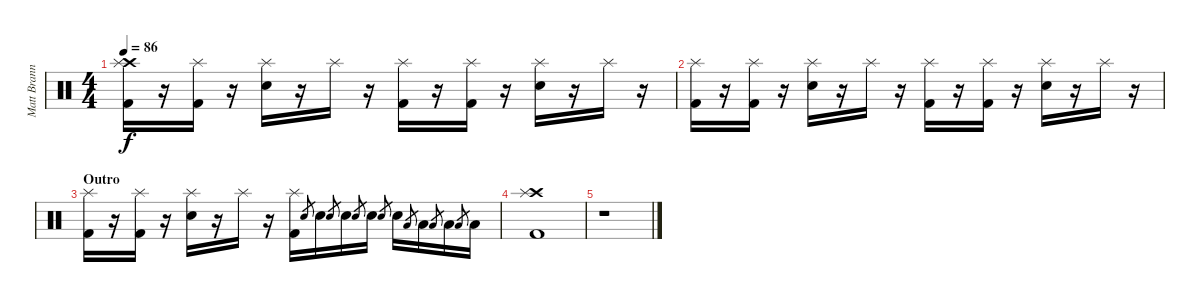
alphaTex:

\track ("Matt Brann - Drums" "Matt Brann") {instrument percussion}
\staff {score}
\articulation defaults
\ts (4 4)
\tempo 86
\clef neutral
\ks c
("Crash high (hit)" "Splash (hit)" "Kick (hit) 2").16{dy f} r.16 ("Splash (hit)" "Kick (hit) 2").16 r.16 ("Splash (hit)" "Snare (hit) 2").16 r.16 "Splash (hit)".16 r.16 ("Splash (hit)" "Kick (hit) 2").16 r.16 ("Splash (hit)" "Kick (hit) 2").16 r.16 ("Splash (hit)" "Snare (hit) 2").16 r.16 "Splash (hit)".16 r.16 |
("Splash (hit)" "Kick (hit) 2").16 r.16 ("Splash (hit)" "Kick (hit) 2").16 r.16 ("Splash (hit)" "Snare (hit) 2").16 r.16 "Splash (hit)".16 r.16 ("Splash (hit)" "Kick (hit) 2").16 r.16 ("Splash (hit)" "Kick (hit) 2").16 r.16 ("Splash (hit)" "Snare (hit) 2").16 r.16 "Splash (hit)".16 r.16 |
\section ("" "Outro")
("Splash (hit)" "Kick (hit) 2").16 r.16 ("Splash (hit)" "Kick (hit) 2").16 r.16 ("Splash (hit)" "Snare (hit) 2").16 r.16 "Splash (hit)".16 r.16 ("Splash (hit)" "Kick (hit) 2").16 "Snare (hit) 2".8{gr} "Snare (hit) 2".16 "Snare (hit) 2".8{gr} "Snare (hit) 2".16 "Snare (hit) 2".8{gr} "Snare (hit) 2".16 "Snare (hit) 2".8{gr} "Snare (hit) 2".16 "Low Floor Tom (hit)".8{gr} "Low Floor Tom (hit)".16 "Low Floor Tom (hit)".8{gr} "Low Floor Tom (hit)".16 "Low Floor Tom (hit)".8{gr} "Low Floor Tom (hit)".16 |
("Crash high (hit)" "Splash (hit)" "Kick (hit) 2").1 |
r.1
